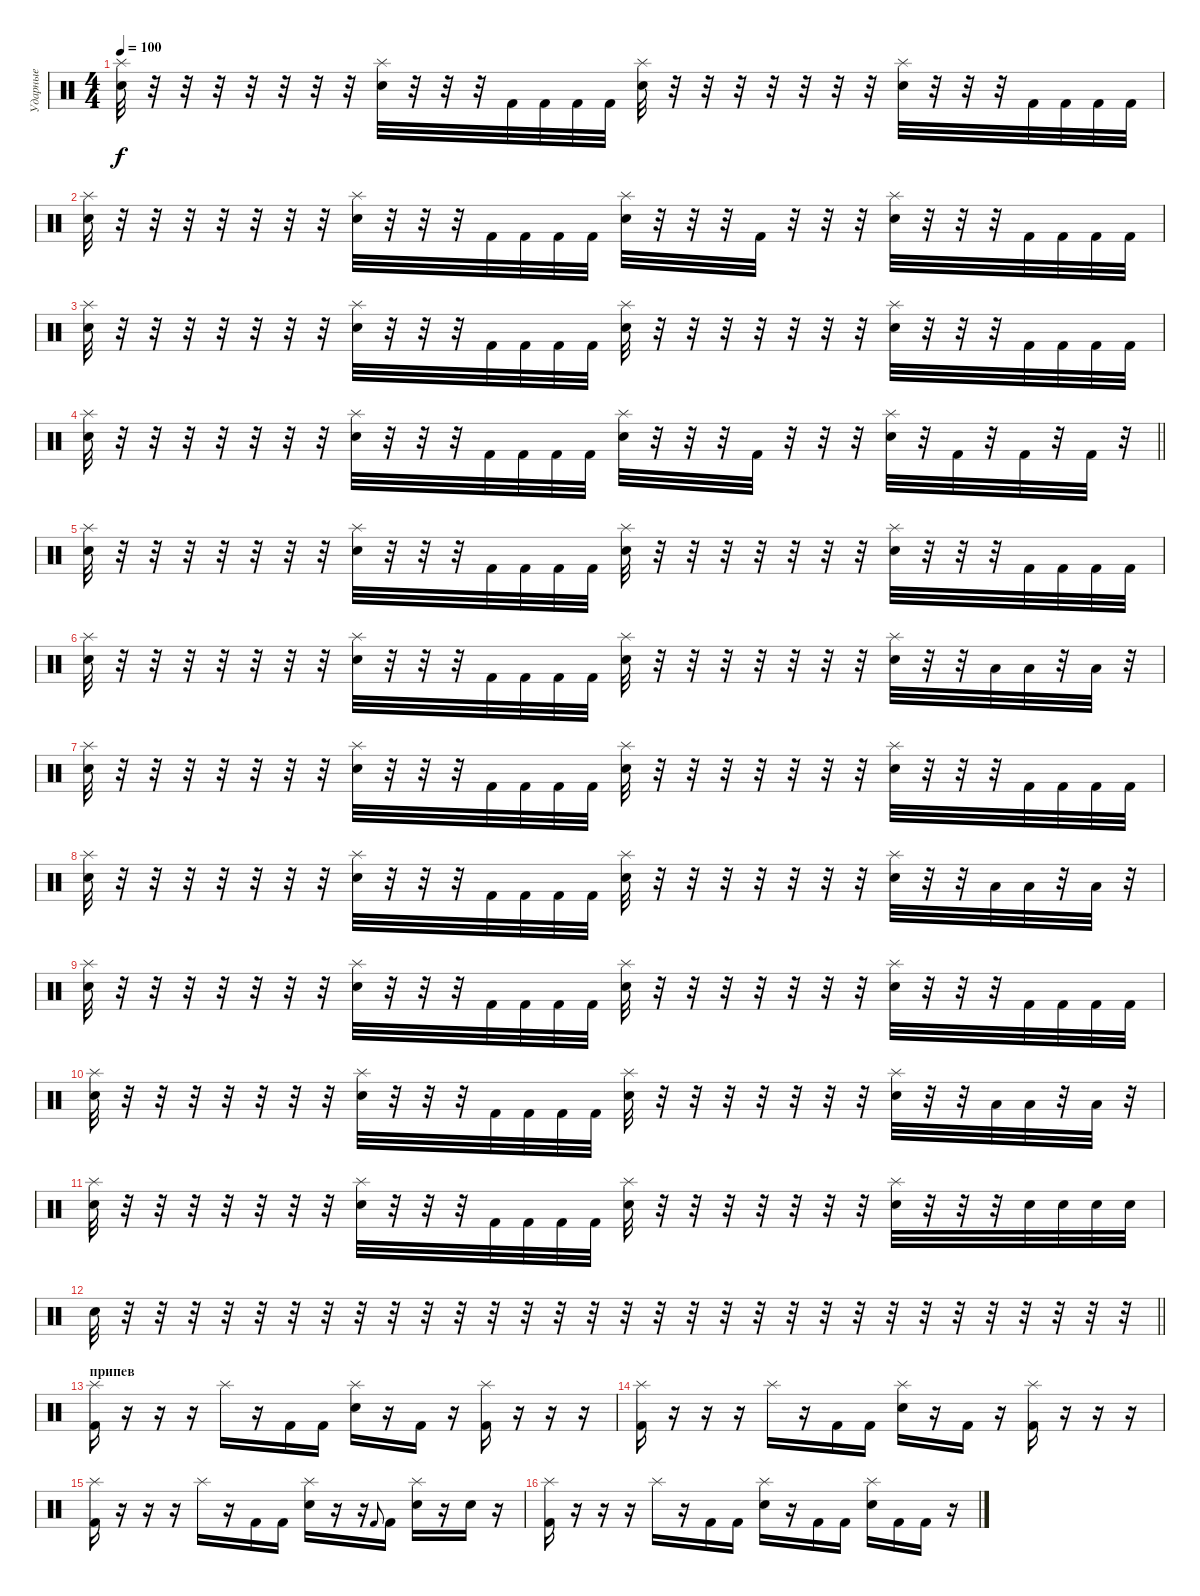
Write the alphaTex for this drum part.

\track ("Ударные" "Ударные") {instrument percussion}
\staff {score}
\articulation defaults
\ts (4 4)
\tempo 100
\clef neutral
\ks c
("Splash (hit)" "Electric Snare (hit)").32{dy f} r.32 r.32 r.32 r.32 r.32 r.32 r.32 ("Splash (hit)" "Electric Snare (hit)").32 r.32 r.32 r.32 "Kick (hit) 2".32 "Kick (hit) 2".32 "Kick (hit) 2".32 "Kick (hit) 2".32 ("Splash (hit)" "Electric Snare (hit)").32 r.32 r.32 r.32 r.32 r.32 r.32 r.32 ("Splash (hit)" "Electric Snare (hit)").32 r.32 r.32 r.32 "Kick (hit) 2".32 "Kick (hit) 2".32 "Kick (hit) 2".32 "Kick (hit) 2".32 |
("Splash (hit)" "Electric Snare (hit)").32 r.32 r.32 r.32 r.32 r.32 r.32 r.32 ("Splash (hit)" "Electric Snare (hit)").32 r.32 r.32 r.32 "Kick (hit) 2".32 "Kick (hit) 2".32 "Kick (hit) 2".32 "Kick (hit) 2".32 ("Splash (hit)" "Electric Snare (hit)").32 r.32 r.32 r.32 "Kick (hit) 2".32 r.32 r.32 r.32 ("Splash (hit)" "Electric Snare (hit)").32 r.32 r.32 r.32 "Kick (hit) 2".32 "Kick (hit) 2".32 "Kick (hit) 2".32 "Kick (hit) 2".32 |
("Splash (hit)" "Electric Snare (hit)").32 r.32 r.32 r.32 r.32 r.32 r.32 r.32 ("Splash (hit)" "Electric Snare (hit)").32 r.32 r.32 r.32 "Kick (hit) 2".32 "Kick (hit) 2".32 "Kick (hit) 2".32 "Kick (hit) 2".32 ("Splash (hit)" "Electric Snare (hit)").32 r.32 r.32 r.32 r.32 r.32 r.32 r.32 ("Splash (hit)" "Electric Snare (hit)").32 r.32 r.32 r.32 "Kick (hit) 2".32 "Kick (hit) 2".32 "Kick (hit) 2".32 "Kick (hit) 2".32 |
\barLineRight lightlight
("Splash (hit)" "Electric Snare (hit)").32 r.32 r.32 r.32 r.32 r.32 r.32 r.32 ("Splash (hit)" "Electric Snare (hit)").32 r.32 r.32 r.32 "Kick (hit) 2".32 "Kick (hit) 2".32 "Kick (hit) 2".32 "Kick (hit) 2".32 ("Splash (hit)" "Electric Snare (hit)").32 r.32 r.32 r.32 "Kick (hit) 2".32 r.32 r.32 r.32 ("Splash (hit)" "Electric Snare (hit)").32 r.32 "Kick (hit) 2".32 r.32 "Kick (hit) 2".32 r.32 "Kick (hit) 2".32 r.32 |
\section ("" "")
("Splash (hit)" "Electric Snare (hit)").32 r.32 r.32 r.32 r.32 r.32 r.32 r.32 ("Splash (hit)" "Electric Snare (hit)").32 r.32 r.32 r.32 "Kick (hit) 2".32 "Kick (hit) 2".32 "Kick (hit) 2".32 "Kick (hit) 2".32 ("Splash (hit)" "Electric Snare (hit)").32 r.32 r.32 r.32 r.32 r.32 r.32 r.32 ("Splash (hit)" "Electric Snare (hit)").32 r.32 r.32 r.32 "Kick (hit) 2".32 "Kick (hit) 2".32 "Kick (hit) 2".32 "Kick (hit) 2".32 |
("Splash (hit)" "Electric Snare (hit)").32 r.32 r.32 r.32 r.32 r.32 r.32 r.32 ("Splash (hit)" "Electric Snare (hit)").32 r.32 r.32 r.32 "Kick (hit) 2".32 "Kick (hit) 2".32 "Kick (hit) 2".32 "Kick (hit) 2".32 ("Splash (hit)" "Electric Snare (hit)").32 r.32 r.32 r.32 r.32 r.32 r.32 r.32 ("Splash (hit)" "Electric Snare (hit)").32 r.32 r.32 "Low Floor Tom (hit)".32 "Low Floor Tom (hit)".32 r.32 "Low Floor Tom (hit)".32 r.32 |
("Splash (hit)" "Electric Snare (hit)").32 r.32 r.32 r.32 r.32 r.32 r.32 r.32 ("Splash (hit)" "Electric Snare (hit)").32 r.32 r.32 r.32 "Kick (hit) 2".32 "Kick (hit) 2".32 "Kick (hit) 2".32 "Kick (hit) 2".32 ("Splash (hit)" "Electric Snare (hit)").32 r.32 r.32 r.32 r.32 r.32 r.32 r.32 ("Splash (hit)" "Electric Snare (hit)").32 r.32 r.32 r.32 "Kick (hit) 2".32 "Kick (hit) 2".32 "Kick (hit) 2".32 "Kick (hit) 2".32 |
("Splash (hit)" "Electric Snare (hit)").32 r.32 r.32 r.32 r.32 r.32 r.32 r.32 ("Splash (hit)" "Electric Snare (hit)").32 r.32 r.32 r.32 "Kick (hit) 2".32 "Kick (hit) 2".32 "Kick (hit) 2".32 "Kick (hit) 2".32 ("Splash (hit)" "Electric Snare (hit)").32 r.32 r.32 r.32 r.32 r.32 r.32 r.32 ("Splash (hit)" "Electric Snare (hit)").32 r.32 r.32 "Low Floor Tom (hit)".32 "Low Floor Tom (hit)".32 r.32 "Low Floor Tom (hit)".32 r.32 |
("Splash (hit)" "Electric Snare (hit)").32 r.32 r.32 r.32 r.32 r.32 r.32 r.32 ("Splash (hit)" "Electric Snare (hit)").32 r.32 r.32 r.32 "Kick (hit) 2".32 "Kick (hit) 2".32 "Kick (hit) 2".32 "Kick (hit) 2".32 ("Splash (hit)" "Electric Snare (hit)").32 r.32 r.32 r.32 r.32 r.32 r.32 r.32 ("Splash (hit)" "Electric Snare (hit)").32 r.32 r.32 r.32 "Kick (hit) 2".32 "Kick (hit) 2".32 "Kick (hit) 2".32 "Kick (hit) 2".32 |
("Splash (hit)" "Electric Snare (hit)").32 r.32 r.32 r.32 r.32 r.32 r.32 r.32 ("Splash (hit)" "Electric Snare (hit)").32 r.32 r.32 r.32 "Kick (hit) 2".32 "Kick (hit) 2".32 "Kick (hit) 2".32 "Kick (hit) 2".32 ("Splash (hit)" "Electric Snare (hit)").32 r.32 r.32 r.32 r.32 r.32 r.32 r.32 ("Splash (hit)" "Electric Snare (hit)").32 r.32 r.32 "Low Floor Tom (hit)".32 "Low Floor Tom (hit)".32 r.32 "Low Floor Tom (hit)".32 r.32 |
("Splash (hit)" "Electric Snare (hit)").32 r.32 r.32 r.32 r.32 r.32 r.32 r.32 ("Splash (hit)" "Electric Snare (hit)").32 r.32 r.32 r.32 "Kick (hit) 2".32 "Kick (hit) 2".32 "Kick (hit) 2".32 "Kick (hit) 2".32 ("Splash (hit)" "Electric Snare (hit)").32 r.32 r.32 r.32 r.32 r.32 r.32 r.32 ("Splash (hit)" "Electric Snare (hit)").32 r.32 r.32 r.32 "Electric Snare (hit)".32 "Electric Snare (hit)".32 "Electric Snare (hit)".32 "Electric Snare (hit)".32 |
\barLineRight lightlight "Electric Snare (hit)".32
r.32 r.32 r.32 r.32 r.32 r.32 r.32 r.32 r.32 r.32 r.32 r.32 r.32 r.32 r.32 r.32 r.32 r.32 r.32 r.32 r.32 r.32 r.32 r.32 r.32 r.32 r.32 r.32 r.32 r.32 r.32 |
\section ("" "припев")
("Splash (hit)" "Kick (hit) 2").16 r.16 r.16 r.16 "Splash (hit)".16 r.16 "Kick (hit) 2".16 "Kick (hit) 2".16 ("Splash (hit)" "Electric Snare (hit)").16 r.16 "Kick (hit) 2".16 r.16 ("Splash (hit)" "Kick (hit) 2").16 r.16 r.16 r.16 |
("Splash (hit)" "Kick (hit) 2").16 r.16 r.16 r.16 "Splash (hit)".16 r.16 "Kick (hit) 2".16 "Kick (hit) 2".16 ("Splash (hit)" "Electric Snare (hit)").16 r.16 "Kick (hit) 2".16 r.16 ("Splash (hit)" "Kick (hit) 2").16 r.16 r.16 r.16 |
("Splash (hit)" "Kick (hit) 2").16 r.16 r.16 r.16 "Splash (hit)".16 r.16 "Kick (hit) 2".16 "Kick (hit) 2".16 ("Splash (hit)" "Electric Snare (hit)").16 r.16 r.16 "Kick (hit) 2".8{gr onbeat} "Kick (hit) 2".16 ("Splash (hit)" "Electric Snare (hit)").16 r.16 "Electric Snare (hit)".16 r.16 |
("Splash (hit)" "Kick (hit) 2").16 r.16 r.16 r.16 "Splash (hit)".16 r.16 "Kick (hit) 2".16 "Kick (hit) 2".16 ("Splash (hit)" "Electric Snare (hit)").16 r.16 "Kick (hit) 2".16 "Kick (hit) 2".16 ("Splash (hit)" "Electric Snare (hit)").16 "Kick (hit) 2".16 "Kick (hit) 2".16 r.16
